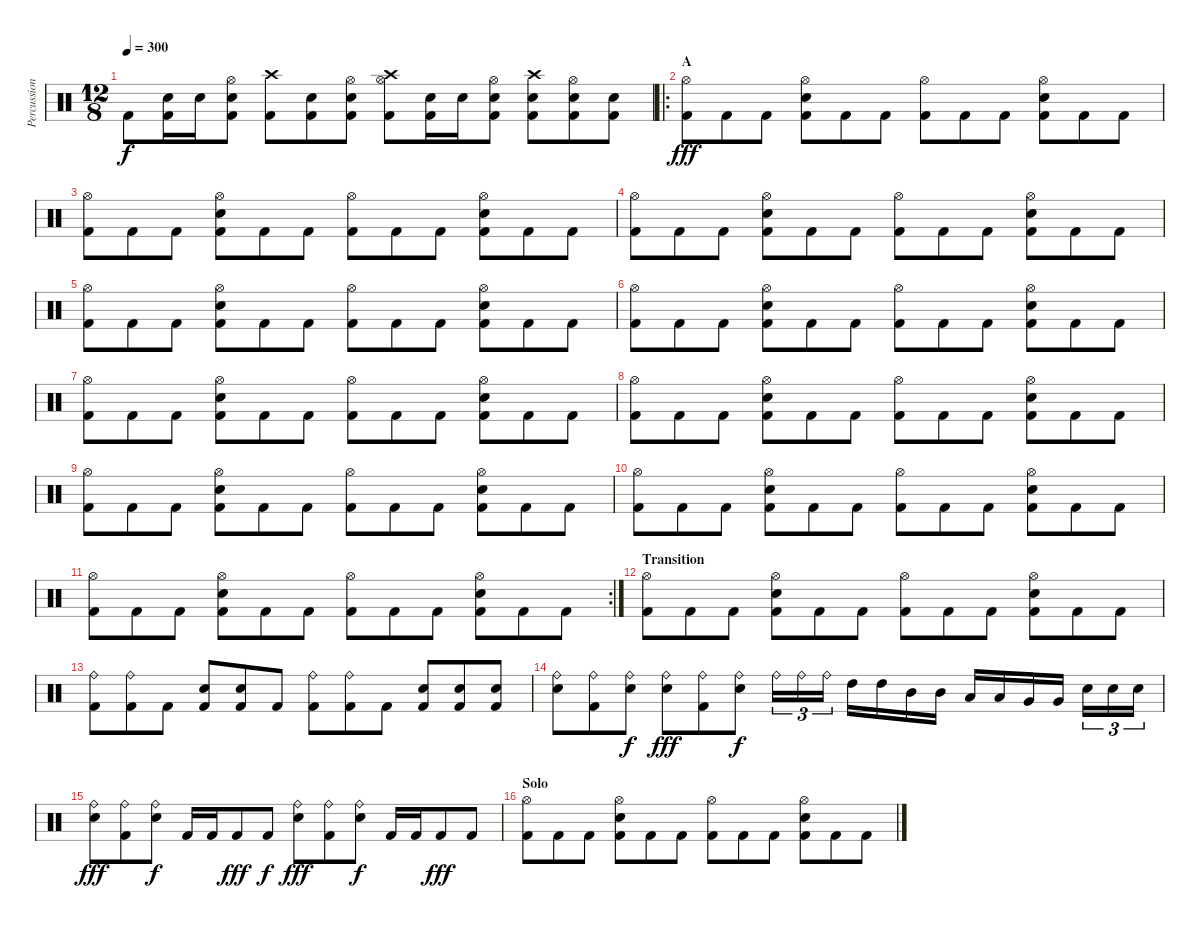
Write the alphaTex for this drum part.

\track ("Percussion" "Percussion") {instrument percussion}
\staff {score}
\articulation defaults
\ts (12 8)
\tempo 300
\clef neutral
\ks c "Kick (hit) 2".8{dy f}
("Snare (hit) 2" "Kick (hit) 2").16 "Snare (hit) 2".16 ("Hi-Hat (open)" "Snare (hit) 2" "Kick (hit) 2").8 ("Crash high (hit)" "Kick (hit) 2").8 ("Snare (hit) 2" "Kick (hit) 2").8 ("Hi-Hat (open)" "Snare (hit) 2" "Kick (hit) 2").8 ("Crash high (hit)" "Hi-Hat (open)" "Kick (hit) 2").8 ("Snare (hit) 2" "Kick (hit) 2").16 "Snare (hit) 2".16 ("Hi-Hat (open)" "Snare (hit) 2" "Kick (hit) 2").8 ("Crash high (hit)" "Snare (hit) 2" "Kick (hit) 2").8 ("Hi-Hat (open)" "Snare (hit) 2" "Kick (hit) 2").8 ("Snare (hit) 2" "Kick (hit) 2").8 |
\ro
\section ("" "A")
("Hi-Hat (open)" "Kick (hit) 2").8{dy fff} "Kick (hit) 2".8 "Kick (hit) 2".8 ("Hi-Hat (open)" "Snare (hit) 2" "Kick (hit) 2").8 "Kick (hit) 2".8 "Kick (hit) 2".8 ("Hi-Hat (open)" "Kick (hit) 2").8 "Kick (hit) 2".8 "Kick (hit) 2".8 ("Hi-Hat (open)" "Snare (hit) 2" "Kick (hit) 2").8 "Kick (hit) 2".8 "Kick (hit) 2".8 |
("Hi-Hat (open)" "Kick (hit) 2").8 "Kick (hit) 2".8 "Kick (hit) 2".8 ("Hi-Hat (open)" "Snare (hit) 2" "Kick (hit) 2").8 "Kick (hit) 2".8 "Kick (hit) 2".8 ("Hi-Hat (open)" "Kick (hit) 2").8 "Kick (hit) 2".8 "Kick (hit) 2".8 ("Hi-Hat (open)" "Snare (hit) 2" "Kick (hit) 2").8 "Kick (hit) 2".8 "Kick (hit) 2".8 |
("Hi-Hat (open)" "Kick (hit) 2").8 "Kick (hit) 2".8 "Kick (hit) 2".8 ("Hi-Hat (open)" "Snare (hit) 2" "Kick (hit) 2").8 "Kick (hit) 2".8 "Kick (hit) 2".8 ("Hi-Hat (open)" "Kick (hit) 2").8 "Kick (hit) 2".8 "Kick (hit) 2".8 ("Hi-Hat (open)" "Snare (hit) 2" "Kick (hit) 2").8 "Kick (hit) 2".8 "Kick (hit) 2".8 |
("Hi-Hat (open)" "Kick (hit) 2").8 "Kick (hit) 2".8 "Kick (hit) 2".8 ("Hi-Hat (open)" "Snare (hit) 2" "Kick (hit) 2").8 "Kick (hit) 2".8 "Kick (hit) 2".8 ("Hi-Hat (open)" "Kick (hit) 2").8 "Kick (hit) 2".8 "Kick (hit) 2".8 ("Hi-Hat (open)" "Snare (hit) 2" "Kick (hit) 2").8 "Kick (hit) 2".8 "Kick (hit) 2".8 |
("Hi-Hat (open)" "Kick (hit) 2").8 "Kick (hit) 2".8 "Kick (hit) 2".8 ("Hi-Hat (open)" "Snare (hit) 2" "Kick (hit) 2").8 "Kick (hit) 2".8 "Kick (hit) 2".8 ("Hi-Hat (open)" "Kick (hit) 2").8 "Kick (hit) 2".8 "Kick (hit) 2".8 ("Hi-Hat (open)" "Snare (hit) 2" "Kick (hit) 2").8 "Kick (hit) 2".8 "Kick (hit) 2".8 |
("Hi-Hat (open)" "Kick (hit) 2").8 "Kick (hit) 2".8 "Kick (hit) 2".8 ("Hi-Hat (open)" "Snare (hit) 2" "Kick (hit) 2").8 "Kick (hit) 2".8 "Kick (hit) 2".8 ("Hi-Hat (open)" "Kick (hit) 2").8 "Kick (hit) 2".8 "Kick (hit) 2".8 ("Hi-Hat (open)" "Snare (hit) 2" "Kick (hit) 2").8 "Kick (hit) 2".8 "Kick (hit) 2".8 |
("Hi-Hat (open)" "Kick (hit) 2").8 "Kick (hit) 2".8 "Kick (hit) 2".8 ("Hi-Hat (open)" "Snare (hit) 2" "Kick (hit) 2").8 "Kick (hit) 2".8 "Kick (hit) 2".8 ("Hi-Hat (open)" "Kick (hit) 2").8 "Kick (hit) 2".8 "Kick (hit) 2".8 ("Hi-Hat (open)" "Snare (hit) 2" "Kick (hit) 2").8 "Kick (hit) 2".8 "Kick (hit) 2".8 |
("Hi-Hat (open)" "Kick (hit) 2").8 "Kick (hit) 2".8 "Kick (hit) 2".8 ("Hi-Hat (open)" "Snare (hit) 2" "Kick (hit) 2").8 "Kick (hit) 2".8 "Kick (hit) 2".8 ("Hi-Hat (open)" "Kick (hit) 2").8 "Kick (hit) 2".8 "Kick (hit) 2".8 ("Hi-Hat (open)" "Snare (hit) 2" "Kick (hit) 2").8 "Kick (hit) 2".8 "Kick (hit) 2".8 |
("Hi-Hat (open)" "Kick (hit) 2").8 "Kick (hit) 2".8 "Kick (hit) 2".8 ("Hi-Hat (open)" "Snare (hit) 2" "Kick (hit) 2").8 "Kick (hit) 2".8 "Kick (hit) 2".8 ("Hi-Hat (open)" "Kick (hit) 2").8 "Kick (hit) 2".8 "Kick (hit) 2".8 ("Hi-Hat (open)" "Snare (hit) 2" "Kick (hit) 2").8 "Kick (hit) 2".8 "Kick (hit) 2".8 |
\rc 2
("Hi-Hat (open)" "Kick (hit) 2").8 "Kick (hit) 2".8 "Kick (hit) 2".8 ("Hi-Hat (open)" "Snare (hit) 2" "Kick (hit) 2").8 "Kick (hit) 2".8 "Kick (hit) 2".8 ("Hi-Hat (open)" "Kick (hit) 2").8 "Kick (hit) 2".8 "Kick (hit) 2".8 ("Hi-Hat (open)" "Snare (hit) 2" "Kick (hit) 2").8 "Kick (hit) 2".8 "Kick (hit) 2".8 |
\section ("" "Transition")
("Hi-Hat (open)" "Kick (hit) 2").8 "Kick (hit) 2".8 "Kick (hit) 2".8 ("Hi-Hat (open)" "Snare (hit) 2" "Kick (hit) 2").8 "Kick (hit) 2".8 "Kick (hit) 2".8 ("Hi-Hat (open)" "Kick (hit) 2").8 "Kick (hit) 2".8 "Kick (hit) 2".8 ("Hi-Hat (open)" "Snare (hit) 2" "Kick (hit) 2").8 "Kick (hit) 2".8 "Kick (hit) 2".8 |
("Ride (bell)" "Kick (hit) 2").8 ("Ride (bell)" "Kick (hit) 2").8 "Kick (hit) 2".8 ("Snare (hit) 2" "Kick (hit) 2").8 ("Snare (hit) 2" "Kick (hit) 2").8 "Kick (hit) 2".8 ("Ride (bell)" "Kick (hit) 2").8 ("Ride (bell)" "Kick (hit) 2").8 "Kick (hit) 2".8 ("Snare (hit) 2" "Kick (hit) 2").8 ("Snare (hit) 2" "Kick (hit) 2").8 ("Snare (hit) 2" "Kick (hit) 2").8 |
("Ride (bell)" "Snare (hit) 2").8 ("Ride (bell)" "Kick (hit) 2").8 ("Ride (bell)" "Snare (hit) 2").8{dy f} ("Ride (bell)" "Snare (hit) 2").8{dy fff} ("Ride (bell)" "Kick (hit) 2").8 ("Ride (bell)" "Snare (hit) 2").8{dy f} "Ride (bell)".16{tu (3 2)} "Ride (bell)".16{tu (3 2)} "Ride (bell)".16{tu (3 2)} "High Tom (hit)".16 "High Tom (hit)".16 "Mid Tom (hit)".16 "Mid Tom (hit)".16 "Low Tom (hit)".16 "Low Tom (hit)".16 "Very Low Tom (hit)".16 "Very Low Tom (hit)".16 "Snare (hit) 2".16{tu (3 2)} "Snare (hit) 2".16{tu (3 2)} "Snare (hit) 2".16{tu (3 2)} |
("Ride (bell)" "Snare (hit) 2").8{dy fff} ("Ride (bell)" "Kick (hit) 2").8 ("Ride (bell)" "Snare (hit) 2").8{dy f} "Kick (hit) 2".16 "Kick (hit) 2".16 "Kick (hit) 2".8{dy fff} "Kick (hit) 2".8{dy f} ("Ride (bell)" "Snare (hit) 2").8{dy fff} ("Ride (bell)" "Kick (hit) 2").8 ("Ride (bell)" "Snare (hit) 2").8{dy f} "Kick (hit) 2".16 "Kick (hit) 2".16 "Kick (hit) 2".8{dy fff} "Kick (hit) 2".8 |
\section ("" "Solo")
("Hi-Hat (open)" "Kick (hit) 2").8 "Kick (hit) 2".8 "Kick (hit) 2".8 ("Hi-Hat (open)" "Snare (hit) 2" "Kick (hit) 2").8 "Kick (hit) 2".8 "Kick (hit) 2".8 ("Hi-Hat (open)" "Kick (hit) 2").8 "Kick (hit) 2".8 "Kick (hit) 2".8 ("Hi-Hat (open)" "Snare (hit) 2" "Kick (hit) 2").8 "Kick (hit) 2".8 "Kick (hit) 2".8
